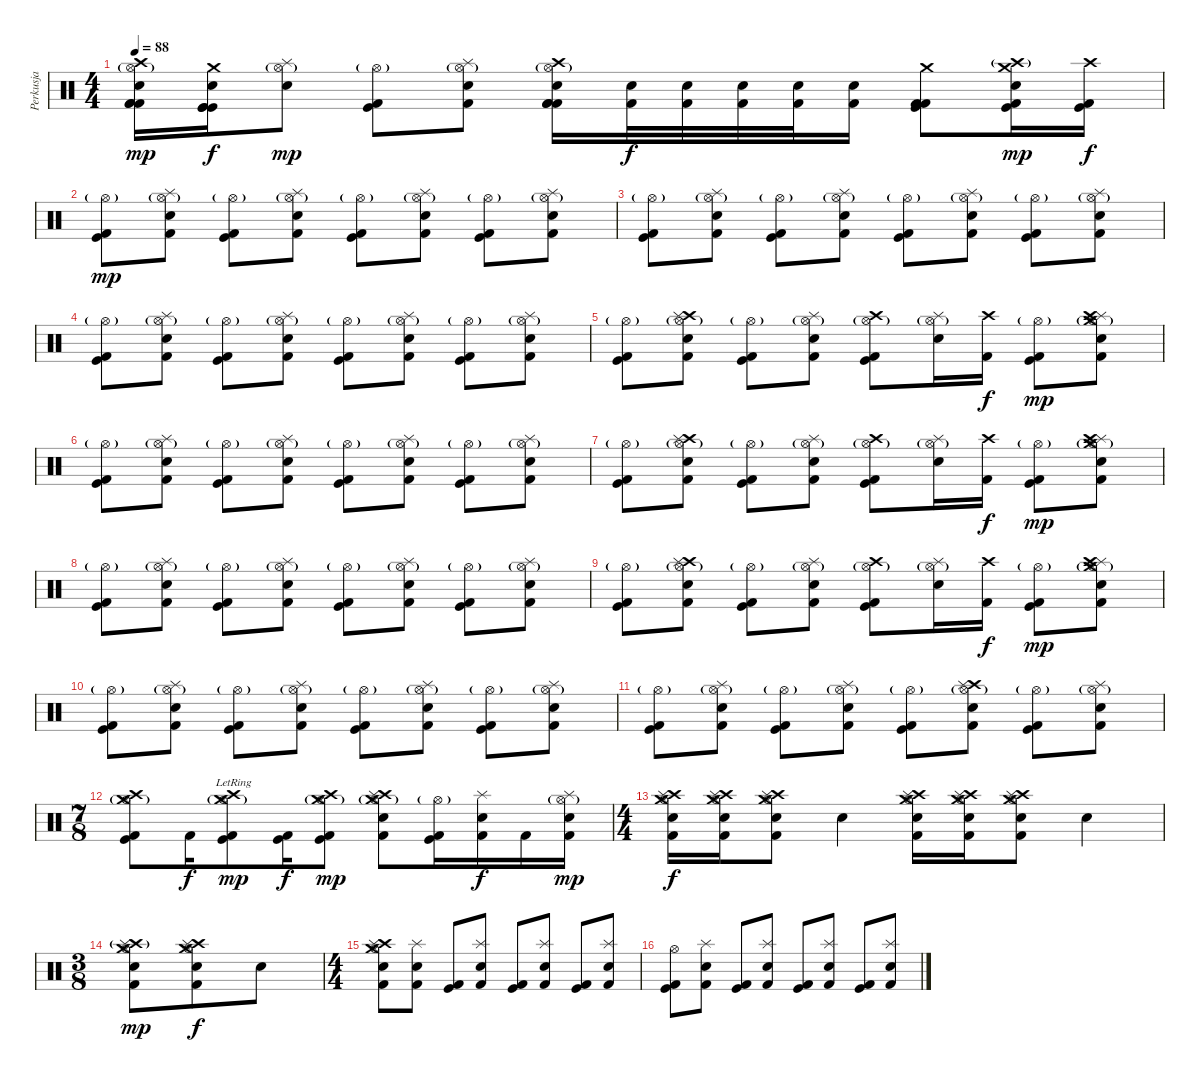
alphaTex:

\track ("Perkusja" "Perkusja") {instrument percussion}
\staff {score}
\articulation defaults
\ts (4 4)
\tempo 88
\clef neutral
\ks c
("Hi-Hat (open)"{g} "Crash high (hit)" "Snare (hit) 2" "Kick (hit) 2" "Kick (hit) 2" "Kick (hit) 2").16{dy mp} ("Crash medium (hit)" "Snare (hit) 2" "Kick (hit)" "Kick (hit)" "Kick (hit)").16{dy f} ("Hi-Hat (open)"{g} "Splash (hit)" "Electric Snare (hit)").8{dy mp} ("Hi-Hat (open)"{g} "Kick (hit)" "Kick (hit) 2").8 ("Hi-Hat (open)"{g} "Splash (hit)" "Electric Snare (hit)" "Kick (hit) 2").8 ("Hi-Hat (open)"{g} "Crash high (hit)" "Snare (hit) 2" "Kick (hit) 2" "Kick (hit) 2" "Kick (hit) 2").16 ("Electric Snare (hit)" "Kick (hit) 2").32{dy f} ("Electric Snare (hit)" "Kick (hit) 2").32 ("Electric Snare (hit)" "Kick (hit) 2").32 ("Snare (hit) 2" "Kick (hit) 2").32 ("Snare (hit) 2" "Kick (hit) 2").16 ("Crash medium (hit)" "Kick (hit)" "Kick (hit) 2" "Kick (hit) 2").8 ("Crash medium (hit)" "Crash high (hit)"{g} "Snare (hit) 2" "Kick (hit)" "Kick (hit) 2").16{dy mp} ("Crash high (hit)" "Kick (hit)" "Kick (hit) 2").16{dy f} |
("Hi-Hat (open)"{g} "Kick (hit)" "Kick (hit) 2").8{dy mp} ("Hi-Hat (open)"{g} "Splash (hit)" "Electric Snare (hit)" "Kick (hit) 2").8 ("Hi-Hat (open)"{g} "Kick (hit)" "Kick (hit) 2").8 ("Hi-Hat (open)"{g} "Splash (hit)" "Electric Snare (hit)" "Kick (hit) 2").8 ("Hi-Hat (open)"{g} "Kick (hit)" "Kick (hit) 2").8 ("Hi-Hat (open)"{g} "Splash (hit)" "Electric Snare (hit)" "Kick (hit) 2").8 ("Hi-Hat (open)"{g} "Kick (hit)" "Kick (hit) 2").8 ("Hi-Hat (open)"{g} "Splash (hit)" "Electric Snare (hit)" "Kick (hit) 2").8 |
("Hi-Hat (open)"{g} "Kick (hit)" "Kick (hit) 2").8 ("Hi-Hat (open)"{g} "Splash (hit)" "Electric Snare (hit)" "Kick (hit) 2").8 ("Hi-Hat (open)"{g} "Kick (hit)" "Kick (hit) 2").8 ("Hi-Hat (open)"{g} "Splash (hit)" "Electric Snare (hit)" "Kick (hit) 2").8 ("Hi-Hat (open)"{g} "Kick (hit)" "Kick (hit) 2").8 ("Hi-Hat (open)"{g} "Splash (hit)" "Electric Snare (hit)" "Kick (hit) 2").8 ("Hi-Hat (open)"{g} "Kick (hit)" "Kick (hit) 2").8 ("Hi-Hat (open)"{g} "Splash (hit)" "Electric Snare (hit)" "Kick (hit) 2").8 |
("Hi-Hat (open)"{g} "Kick (hit)" "Kick (hit) 2").8 ("Hi-Hat (open)"{g} "Splash (hit)" "Electric Snare (hit)" "Kick (hit) 2").8 ("Hi-Hat (open)"{g} "Kick (hit)" "Kick (hit) 2").8 ("Hi-Hat (open)"{g} "Splash (hit)" "Electric Snare (hit)" "Kick (hit) 2").8 ("Hi-Hat (open)"{g} "Kick (hit)" "Kick (hit) 2").8 ("Hi-Hat (open)"{g} "Splash (hit)" "Electric Snare (hit)" "Kick (hit) 2").8 ("Hi-Hat (open)"{g} "Kick (hit)" "Kick (hit) 2").8 ("Hi-Hat (open)"{g} "Splash (hit)" "Electric Snare (hit)" "Kick (hit) 2").8 |
("Hi-Hat (open)"{g} "Kick (hit)" "Kick (hit) 2").8 ("Hi-Hat (open)"{g} "Crash high (hit)" "Splash (hit)" "Electric Snare (hit)" "Kick (hit) 2").8 ("Hi-Hat (open)"{g} "Kick (hit)" "Kick (hit) 2").8 ("Hi-Hat (open)"{g} "Splash (hit)" "Electric Snare (hit)" "Kick (hit) 2").8 ("Hi-Hat (open)"{g} "Crash high (hit)" "Kick (hit)" "Kick (hit) 2").8 ("Hi-Hat (open)"{g} "Splash (hit)" "Electric Snare (hit)").16 ("Crash high (hit)" "Kick (hit) 2").16{dy f} ("Hi-Hat (open)"{g} "Kick (hit)" "Kick (hit) 2").8{dy mp} ("Hi-Hat (open)"{g} "Crash medium (hit)" "Splash (hit)" "Crash high (hit)" "Electric Snare (hit)" "Kick (hit) 2").8 |
("Hi-Hat (open)"{g} "Kick (hit)" "Kick (hit) 2").8 ("Hi-Hat (open)"{g} "Splash (hit)" "Electric Snare (hit)" "Kick (hit) 2").8 ("Hi-Hat (open)"{g} "Kick (hit)" "Kick (hit) 2").8 ("Hi-Hat (open)"{g} "Splash (hit)" "Electric Snare (hit)" "Kick (hit) 2").8 ("Hi-Hat (open)"{g} "Kick (hit)" "Kick (hit) 2").8 ("Hi-Hat (open)"{g} "Splash (hit)" "Electric Snare (hit)" "Kick (hit) 2").8 ("Hi-Hat (open)"{g} "Kick (hit)" "Kick (hit) 2").8 ("Hi-Hat (open)"{g} "Splash (hit)" "Electric Snare (hit)" "Kick (hit) 2").8 |
("Hi-Hat (open)"{g} "Kick (hit)" "Kick (hit) 2").8 ("Hi-Hat (open)"{g} "Crash high (hit)" "Splash (hit)" "Electric Snare (hit)" "Kick (hit) 2").8 ("Hi-Hat (open)"{g} "Kick (hit)" "Kick (hit) 2").8 ("Hi-Hat (open)"{g} "Splash (hit)" "Electric Snare (hit)" "Kick (hit) 2").8 ("Hi-Hat (open)"{g} "Crash high (hit)" "Kick (hit)" "Kick (hit) 2").8 ("Hi-Hat (open)"{g} "Splash (hit)" "Electric Snare (hit)").16 ("Crash high (hit)" "Kick (hit) 2").16{dy f} ("Hi-Hat (open)"{g} "Kick (hit)" "Kick (hit) 2").8{dy mp} ("Hi-Hat (open)"{g} "Crash medium (hit)" "Splash (hit)" "Crash high (hit)" "Electric Snare (hit)" "Kick (hit) 2").8 |
("Hi-Hat (open)"{g} "Kick (hit)" "Kick (hit) 2").8 ("Hi-Hat (open)"{g} "Splash (hit)" "Electric Snare (hit)" "Kick (hit) 2").8 ("Hi-Hat (open)"{g} "Kick (hit)" "Kick (hit) 2").8 ("Hi-Hat (open)"{g} "Splash (hit)" "Electric Snare (hit)" "Kick (hit) 2").8 ("Hi-Hat (open)"{g} "Kick (hit)" "Kick (hit) 2").8 ("Hi-Hat (open)"{g} "Splash (hit)" "Electric Snare (hit)" "Kick (hit) 2").8 ("Hi-Hat (open)"{g} "Kick (hit)" "Kick (hit) 2").8 ("Hi-Hat (open)"{g} "Splash (hit)" "Electric Snare (hit)" "Kick (hit) 2").8 |
("Hi-Hat (open)"{g} "Kick (hit)" "Kick (hit) 2").8 ("Hi-Hat (open)"{g} "Crash high (hit)" "Splash (hit)" "Electric Snare (hit)" "Kick (hit) 2").8 ("Hi-Hat (open)"{g} "Kick (hit)" "Kick (hit) 2").8 ("Hi-Hat (open)"{g} "Splash (hit)" "Electric Snare (hit)" "Kick (hit) 2").8 ("Hi-Hat (open)"{g} "Crash high (hit)" "Kick (hit)" "Kick (hit) 2").8 ("Hi-Hat (open)"{g} "Splash (hit)" "Electric Snare (hit)").16 ("Crash high (hit)" "Kick (hit) 2").16{dy f} ("Hi-Hat (open)"{g} "Kick (hit)" "Kick (hit) 2").8{dy mp} ("Hi-Hat (open)"{g} "Crash medium (hit)" "Splash (hit)" "Crash high (hit)" "Electric Snare (hit)" "Kick (hit) 2").8 |
("Hi-Hat (open)"{g} "Kick (hit)" "Kick (hit) 2").8 ("Hi-Hat (open)"{g} "Splash (hit)" "Electric Snare (hit)" "Kick (hit) 2").8 ("Hi-Hat (open)"{g} "Kick (hit)" "Kick (hit) 2").8 ("Hi-Hat (open)"{g} "Splash (hit)" "Electric Snare (hit)" "Kick (hit) 2").8 ("Hi-Hat (open)"{g} "Kick (hit)" "Kick (hit) 2").8 ("Hi-Hat (open)"{g} "Splash (hit)" "Electric Snare (hit)" "Kick (hit) 2").8 ("Hi-Hat (open)"{g} "Kick (hit)" "Kick (hit) 2").8 ("Hi-Hat (open)"{g} "Splash (hit)" "Electric Snare (hit)" "Kick (hit) 2").8 |
("Hi-Hat (open)"{g} "Kick (hit)" "Kick (hit) 2").8 ("Hi-Hat (open)"{g} "Splash (hit)" "Electric Snare (hit)" "Kick (hit) 2").8 ("Hi-Hat (open)"{g} "Kick (hit)" "Kick (hit) 2").8 ("Hi-Hat (open)"{g} "Splash (hit)" "Electric Snare (hit)" "Kick (hit) 2").8 ("Hi-Hat (open)"{g} "Kick (hit)" "Kick (hit) 2").8 ("Hi-Hat (open)"{g} "Crash high (hit)" "Splash (hit)" "Electric Snare (hit)" "Kick (hit) 2").8 ("Hi-Hat (open)"{g} "Kick (hit)" "Kick (hit) 2").8 ("Hi-Hat (open)"{g} "Splash (hit)" "Electric Snare (hit)" "Kick (hit) 2").8 |
\ts (7 8)
("Hi-Hat (open)"{g} "Crash high (hit)" "Crash medium (hit)" "Kick (hit)" "Kick (hit) 2").8 "Kick (hit) 2".16{dy f} ("Hi-Hat (open)"{g lr} "Crash high (hit)" "Crash medium (hit)" "Kick (hit)" "Kick (hit) 2").8{dy mp} ("Kick (hit) 2" "Kick (hit)").16{dy f} ("Hi-Hat (open)"{g} "Crash high (hit)" "Crash medium (hit)" "Kick (hit)" "Kick (hit) 2").8{dy mp} ("Hi-Hat (open)"{g} "Crash high (hit)" "Splash (hit)" "Crash medium (hit)" "Electric Snare (hit)" "Kick (hit) 2").8 ("Hi-Hat (open)"{g} "Kick (hit)" "Kick (hit) 2").16 ("Splash (hit)" "Electric Snare (hit)" "Kick (hit) 2").16{dy f} "Kick (hit) 2".16 ("Hi-Hat (open)"{g} "Splash (hit)" "Electric Snare (hit)" "Kick (hit) 2").16{dy mp} |
\ts (4 4)
("Hi-Hat (open)" "Crash high (hit)" "Splash (hit)" "Crash medium (hit)" "Electric Snare (hit)" "Kick (hit) 2").16{dy f} ("Hi-Hat (open)" "Crash high (hit)" "Splash (hit)" "Crash medium (hit)" "Electric Snare (hit)" "Kick (hit) 2").16 ("Hi-Hat (open)" "Crash high (hit)" "Splash (hit)" "Crash medium (hit)" "Electric Snare (hit)" "Kick (hit) 2").8 "Electric Snare (hit)".4 ("Hi-Hat (open)" "Crash high (hit)" "Splash (hit)" "Crash medium (hit)" "Electric Snare (hit)" "Kick (hit) 2").16 ("Hi-Hat (open)" "Crash high (hit)" "Splash (hit)" "Crash medium (hit)" "Electric Snare (hit)" "Kick (hit) 2").16 ("Hi-Hat (open)" "Crash high (hit)" "Splash (hit)" "Crash medium (hit)" "Electric Snare (hit)" "Kick (hit) 2").8 "Electric Snare (hit)".4 |
\ts (3 8)
("Hi-Hat (open)" "Crash high (hit)"{g} "Splash (hit)" "Crash medium (hit)" "Electric Snare (hit)" "Kick (hit) 2").8{dy mp} ("Hi-Hat (open)" "Crash high (hit)" "Splash (hit)" "Crash medium (hit)" "Electric Snare (hit)" "Kick (hit) 2").8{dy f} "Electric Snare (hit)".8 |
\ts (4 4)
("Hi-Hat (open)" "Crash high (hit)" "Splash (hit)" "Crash medium (hit)" "Electric Snare (hit)" "Kick (hit) 2").8 ("Splash (hit)" "Electric Snare (hit)" "Kick (hit) 2").8 ("Kick (hit)" "Kick (hit) 2").8 ("Splash (hit)" "Electric Snare (hit)" "Kick (hit) 2").8 ("Kick (hit)" "Kick (hit) 2").8 ("Splash (hit)" "Electric Snare (hit)" "Kick (hit) 2").8 ("Kick (hit)" "Kick (hit) 2").8 ("Splash (hit)" "Electric Snare (hit)" "Kick (hit) 2").8 |
("Hi-Hat (open)" "Kick (hit)" "Kick (hit) 2").8 ("Splash (hit)" "Electric Snare (hit)" "Kick (hit) 2").8 ("Kick (hit)" "Kick (hit) 2").8 ("Splash (hit)" "Electric Snare (hit)" "Kick (hit) 2").8 ("Kick (hit)" "Kick (hit) 2").8 ("Splash (hit)" "Electric Snare (hit)" "Kick (hit) 2").8 ("Kick (hit)" "Kick (hit) 2").8 ("Splash (hit)" "Electric Snare (hit)" "Kick (hit) 2").8
